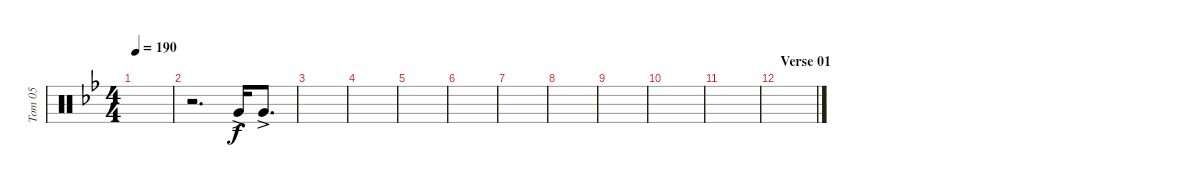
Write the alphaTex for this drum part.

\track ("Tom 05" "Tom 05") {instrument percussion}
\staff {score}
\articulation defaults
\ts (4 4)
\tempo 190
\clef neutral
\ks bb
|
r.2{d} "Very Low Tom (hit)"{ac}.16 "Very Low Tom (hit)"{ac}.8{d} |
|
|
|
|
|
|
|
|
|
\section ("" "Verse 01")
